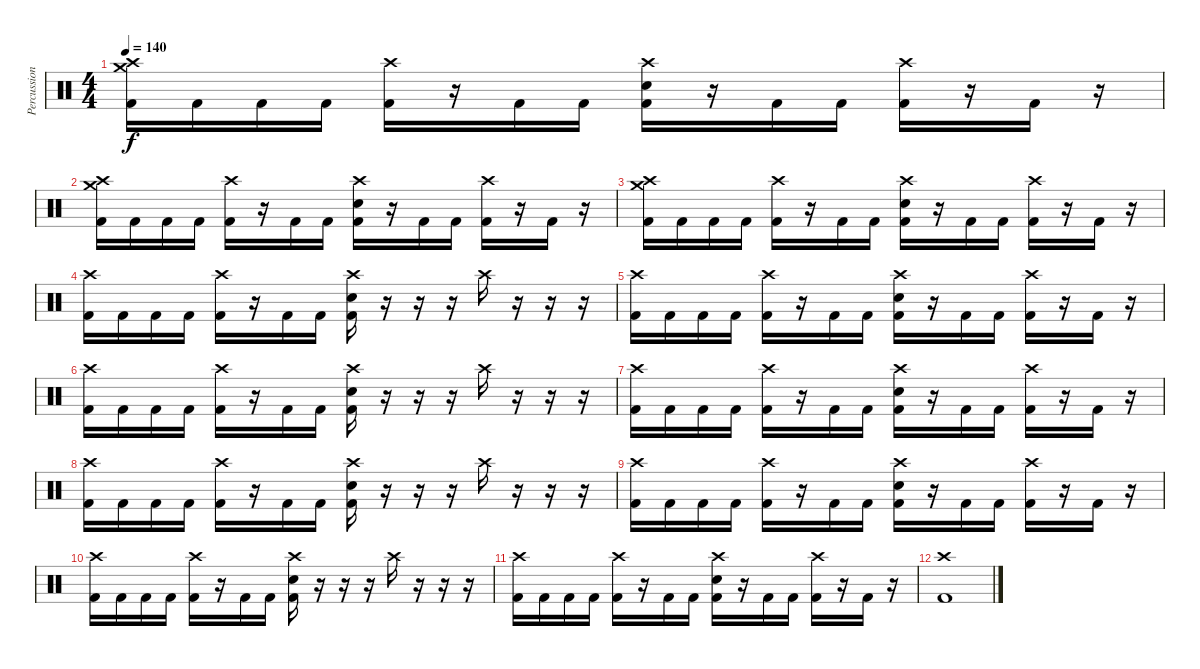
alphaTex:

\track ("Percussion" "Percussion") {instrument percussion}
\staff {score}
\articulation defaults
\ts (4 4)
\tempo 140
\clef neutral
\ks c
("Crash medium (hit)" "Crash high (hit)" "Kick (hit) 2").16{dy f} "Kick (hit) 2".16 "Kick (hit) 2".16 "Kick (hit) 2".16 ("Crash high (hit)" "Kick (hit) 2").16 r.16 "Kick (hit) 2".16 "Kick (hit) 2".16 ("Crash high (hit)" "Electric Snare (hit)" "Kick (hit) 2").16 r.16 "Kick (hit) 2".16 "Kick (hit) 2".16 ("Crash high (hit)" "Kick (hit) 2").16 r.16 "Kick (hit) 2".16 r.16 |
("Crash medium (hit)" "Crash high (hit)" "Kick (hit) 2").16 "Kick (hit) 2".16 "Kick (hit) 2".16 "Kick (hit) 2".16 ("Crash high (hit)" "Kick (hit) 2").16 r.16 "Kick (hit) 2".16 "Kick (hit) 2".16 ("Crash high (hit)" "Electric Snare (hit)" "Kick (hit) 2").16 r.16 "Kick (hit) 2".16 "Kick (hit) 2".16 ("Crash high (hit)" "Kick (hit) 2").16 r.16 "Kick (hit) 2".16 r.16 |
("Crash medium (hit)" "Crash high (hit)" "Kick (hit) 2").16 "Kick (hit) 2".16 "Kick (hit) 2".16 "Kick (hit) 2".16 ("Crash high (hit)" "Kick (hit) 2").16 r.16 "Kick (hit) 2".16 "Kick (hit) 2".16 ("Crash high (hit)" "Electric Snare (hit)" "Kick (hit) 2").16 r.16 "Kick (hit) 2".16 "Kick (hit) 2".16 ("Crash high (hit)" "Kick (hit) 2").16 r.16 "Kick (hit) 2".16 r.16 |
("Crash high (hit)" "Kick (hit) 2").16 "Kick (hit) 2".16 "Kick (hit) 2".16 "Kick (hit) 2".16 ("Crash high (hit)" "Kick (hit) 2").16 r.16 "Kick (hit) 2".16 "Kick (hit) 2".16 ("Crash high (hit)" "Electric Snare (hit)" "Kick (hit) 2").16 r.16 r.16 r.16 "Crash high (hit)".16 r.16 r.16 r.16 |
("Crash high (hit)" "Kick (hit) 2").16 "Kick (hit) 2".16 "Kick (hit) 2".16 "Kick (hit) 2".16 ("Crash high (hit)" "Kick (hit) 2").16 r.16 "Kick (hit) 2".16 "Kick (hit) 2".16 ("Crash high (hit)" "Electric Snare (hit)" "Kick (hit) 2").16 r.16 "Kick (hit) 2".16 "Kick (hit) 2".16 ("Crash high (hit)" "Kick (hit) 2").16 r.16 "Kick (hit) 2".16 r.16 |
("Crash high (hit)" "Kick (hit) 2").16 "Kick (hit) 2".16 "Kick (hit) 2".16 "Kick (hit) 2".16 ("Crash high (hit)" "Kick (hit) 2").16 r.16 "Kick (hit) 2".16 "Kick (hit) 2".16 ("Crash high (hit)" "Electric Snare (hit)" "Kick (hit) 2").16 r.16 r.16 r.16 "Crash high (hit)".16 r.16 r.16 r.16 |
("Crash high (hit)" "Kick (hit) 2").16 "Kick (hit) 2".16 "Kick (hit) 2".16 "Kick (hit) 2".16 ("Crash high (hit)" "Kick (hit) 2").16 r.16 "Kick (hit) 2".16 "Kick (hit) 2".16 ("Crash high (hit)" "Electric Snare (hit)" "Kick (hit) 2").16 r.16 "Kick (hit) 2".16 "Kick (hit) 2".16 ("Crash high (hit)" "Kick (hit) 2").16 r.16 "Kick (hit) 2".16 r.16 |
("Crash high (hit)" "Kick (hit) 2").16 "Kick (hit) 2".16 "Kick (hit) 2".16 "Kick (hit) 2".16 ("Crash high (hit)" "Kick (hit) 2").16 r.16 "Kick (hit) 2".16 "Kick (hit) 2".16 ("Crash high (hit)" "Electric Snare (hit)" "Kick (hit) 2").16 r.16 r.16 r.16 "Crash high (hit)".16 r.16 r.16 r.16 |
("Crash high (hit)" "Kick (hit) 2").16 "Kick (hit) 2".16 "Kick (hit) 2".16 "Kick (hit) 2".16 ("Crash high (hit)" "Kick (hit) 2").16 r.16 "Kick (hit) 2".16 "Kick (hit) 2".16 ("Crash high (hit)" "Electric Snare (hit)" "Kick (hit) 2").16 r.16 "Kick (hit) 2".16 "Kick (hit) 2".16 ("Crash high (hit)" "Kick (hit) 2").16 r.16 "Kick (hit) 2".16 r.16 |
("Crash high (hit)" "Kick (hit) 2").16 "Kick (hit) 2".16 "Kick (hit) 2".16 "Kick (hit) 2".16 ("Crash high (hit)" "Kick (hit) 2").16 r.16 "Kick (hit) 2".16 "Kick (hit) 2".16 ("Crash high (hit)" "Electric Snare (hit)" "Kick (hit) 2").16 r.16 r.16 r.16 "Crash high (hit)".16 r.16 r.16 r.16 |
("Crash high (hit)" "Kick (hit) 2").16 "Kick (hit) 2".16 "Kick (hit) 2".16 "Kick (hit) 2".16 ("Crash high (hit)" "Kick (hit) 2").16 r.16 "Kick (hit) 2".16 "Kick (hit) 2".16 ("Crash high (hit)" "Electric Snare (hit)" "Kick (hit) 2").16 r.16 "Kick (hit) 2".16 "Kick (hit) 2".16 ("Crash high (hit)" "Kick (hit) 2").16 r.16 "Kick (hit) 2".16 r.16 |
("Crash high (hit)" "Kick (hit) 2").1
